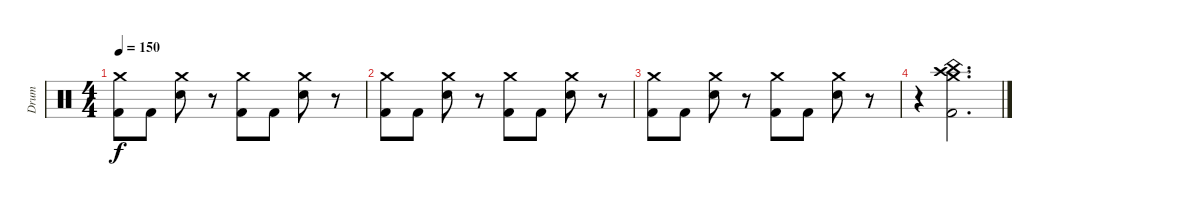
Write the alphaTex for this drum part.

\track ("Drum" "Drum") {instrument percussion}
\staff {score}
\articulation defaults
\ts (4 4)
\tempo 150
\clef neutral
\ks c
("Kick (hit) 2" "Crash medium (hit)").8{dy f} "Kick (hit) 2".8 ("Electric Snare (hit)" "Crash medium (hit)").8 r.8 ("Kick (hit) 2" "Crash medium (hit)").8 "Kick (hit) 2".8 ("Electric Snare (hit)" "Crash medium (hit)").8 r.8 |
("Kick (hit) 2" "Crash medium (hit)").8 "Kick (hit) 2".8 ("Electric Snare (hit)" "Crash medium (hit)").8 r.8 ("Kick (hit) 2" "Crash medium (hit)").8 "Kick (hit) 2".8 ("Electric Snare (hit)" "Crash medium (hit)").8 r.8 |
("Kick (hit) 2" "Crash medium (hit)").8 "Kick (hit) 2".8 ("Electric Snare (hit)" "Crash medium (hit)").8 r.8 ("Kick (hit) 2" "Crash medium (hit)").8 "Kick (hit) 2".8 ("Electric Snare (hit)" "Crash medium (hit)").8 r.8 |
r.4 ("Kick (hit) 2" "Crash high (hit)" "China (hit)" "Crash medium (hit)").2{d}
